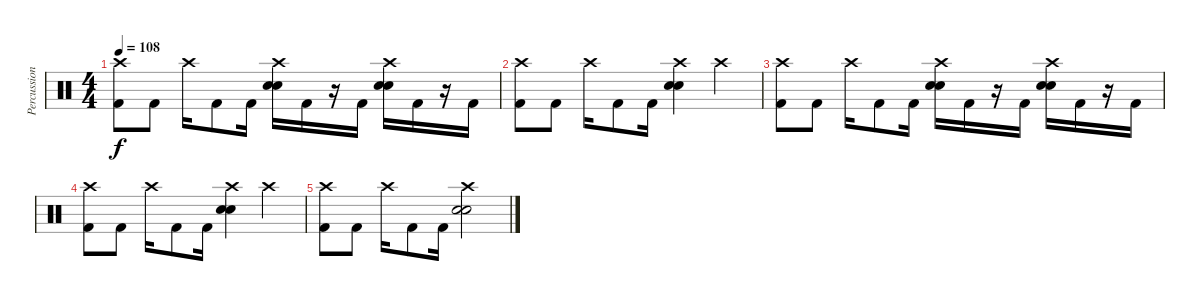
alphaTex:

\track ("Percussion" "Percussion") {instrument percussion}
\staff {score}
\articulation defaults
\ts (4 4)
\tempo 108
\clef neutral
\ks c
("Crash high (hit)" "Kick (hit) 2").8{dy f} "Kick (hit) 2".8 "Crash high (hit)".16 "Kick (hit) 2".8 "Kick (hit) 2".16 ("Crash high (hit)" "Snare (hit) 2" "Electric Snare (hit)").16 "Kick (hit) 2".16 r.16 "Kick (hit) 2".16 ("Crash high (hit)" "Snare (hit) 2" "Electric Snare (hit)").16 "Kick (hit) 2".16 r.16 "Kick (hit) 2".16 |
("Crash high (hit)" "Kick (hit) 2").8 "Kick (hit) 2".8 "Crash high (hit)".16 "Kick (hit) 2".8 "Kick (hit) 2".16 ("Crash high (hit)" "Snare (hit) 2" "Electric Snare (hit)").4 "Crash high (hit)".4 |
("Crash high (hit)" "Kick (hit) 2").8 "Kick (hit) 2".8 "Crash high (hit)".16 "Kick (hit) 2".8 "Kick (hit) 2".16 ("Crash high (hit)" "Snare (hit) 2" "Electric Snare (hit)").16 "Kick (hit) 2".16 r.16 "Kick (hit) 2".16 ("Crash high (hit)" "Snare (hit) 2" "Electric Snare (hit)").16 "Kick (hit) 2".16 r.16 "Kick (hit) 2".16 |
("Crash high (hit)" "Kick (hit) 2").8 "Kick (hit) 2".8 "Crash high (hit)".16 "Kick (hit) 2".8 "Kick (hit) 2".16 ("Crash high (hit)" "Snare (hit) 2" "Electric Snare (hit)").4 "Crash high (hit)".4 |
("Crash high (hit)" "Kick (hit) 2").8 "Kick (hit) 2".8 "Crash high (hit)".16 "Kick (hit) 2".8 "Kick (hit) 2".16 ("Crash high (hit)" "Snare (hit) 2" "Electric Snare (hit)").2
